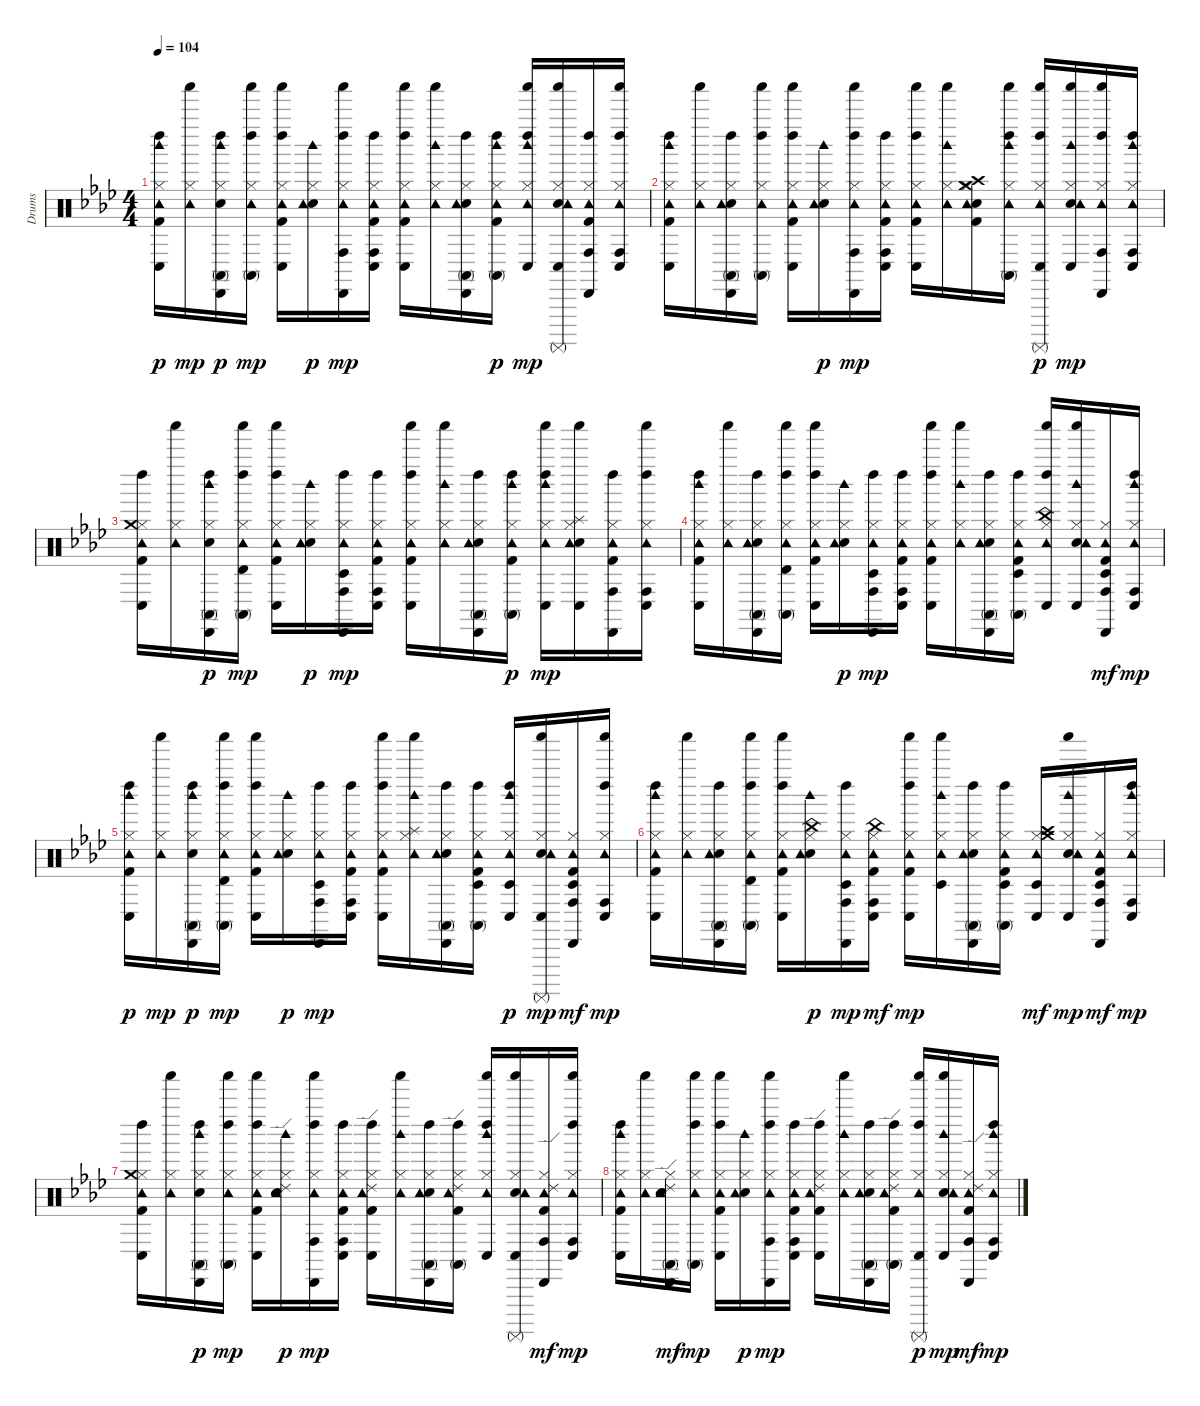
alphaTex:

\track ("Drums" "Drums") {instrument percussion}
\staff {score}
\articulation defaults
\ts (4 4)
\tempo 104
\clef neutral
\ks ab
("Kick (hit) 2" "Hi-Hat (closed)" "Tambourine (hit)" "Conga low (hit)" "Left Maraca (hit)" "Woodblock high (hit)").16{dy p} ("Hi-Hat (closed)" "Tambourine (hit)" "Shaker (hit)").16{dy mp} ("Hand Clap (hit)" "Hi-Hat (closed)" "Conga high (mute)" "Cabasa (hit)" "Left Maraca (hit)" "Woodblock high (hit)").16{dy p} ("Hi-Hat (closed)" "Tambourine (hit)" "Conga high (mute)" "Left Maraca (hit)" "Shaker (hit)").16{dy mp} ("Kick (hit) 2" "Hi-Hat (closed)" "Tambourine (hit)" "Conga low (hit)" "Left Maraca (hit)" "Shaker (hit)").16 ("Hand Clap (hit)" "Hi-Hat (closed)" "Tambourine (hit)" "Woodblock high (hit)").16{dy p} ("Hi-Hat (closed)" "Tambourine (hit)" "Conga high (hit)" "Cabasa (hit)" "Left Maraca (hit)" "Shaker (hit)").16{dy mp} ("Kick (hit) 2" "Hi-Hat (closed)" "Tambourine (hit)" "Conga high (hit)" "Conga low (hit)" "Left Maraca (hit)").16 ("Kick (hit) 2" "Hi-Hat (closed)" "Tambourine (hit)" "Conga low (hit)" "Left Maraca (hit)" "Shaker (hit)").16 ("Hi-Hat (closed)" "Tambourine (hit)" "Woodblock high (hit)" "Shaker (hit)").16 ("Hand Clap (hit)" "Hi-Hat (closed)" "Tambourine (hit)" "Conga high (mute)" "Cabasa (hit)" "Left Maraca (hit)").16 ("Kick (hit) 2" "Hi-Hat (closed)" "Tambourine (hit)" "Conga high (mute)" "Left Maraca (hit)" "Woodblock high (hit)").16{dy p} ("Hi-Hat (closed)" "Tambourine (hit)" "Conga low (hit)" "Left Maraca (hit)" "Woodblock high (hit)" "Shaker (hit)").16{dy mp} ("Hand Clap (hit)" "Hi-Hat (closed)" "Tambourine (hit)" "Conga low (hit)" "Shaker (hit)" "Surdo (mute)").16 ("Kick (hit) 2" "Hi-Hat (closed)" "Tambourine (hit)" "Conga high (hit)" "Cabasa (hit)" "Left Maraca (hit)").16 ("Hi-Hat (closed)" "Tambourine (hit)" "Conga high (hit)" "Conga low (hit)" "Left Maraca (hit)" "Shaker (hit)").16 |
("Kick (hit) 2" "Hi-Hat (closed)" "Tambourine (hit)" "Conga low (hit)" "Left Maraca (hit)" "Woodblock high (hit)").16 ("Hi-Hat (closed)" "Tambourine (hit)" "Shaker (hit)").16 ("Hand Clap (hit)" "Hi-Hat (closed)" "Tambourine (hit)" "Conga high (mute)" "Cabasa (hit)" "Left Maraca (hit)").16 ("Hi-Hat (closed)" "Tambourine (hit)" "Conga high (mute)" "Left Maraca (hit)" "Shaker (hit)").16 ("Kick (hit) 2" "Hi-Hat (closed)" "Tambourine (hit)" "Conga low (hit)" "Left Maraca (hit)" "Shaker (hit)").16 ("Hand Clap (hit)" "Hi-Hat (closed)" "Tambourine (hit)" "Woodblock high (hit)").16{dy p} ("Hi-Hat (closed)" "Tambourine (hit)" "Conga high (hit)" "Cabasa (hit)" "Left Maraca (hit)" "Shaker (hit)").16{dy mp} ("Kick (hit) 2" "Hi-Hat (closed)" "Tambourine (hit)" "Conga high (hit)" "Conga low (hit)" "Left Maraca (hit)").16 ("Kick (hit) 2" "Hi-Hat (closed)" "Tambourine (hit)" "Conga low (hit)" "Left Maraca (hit)" "Shaker (hit)").16 ("Hi-Hat (closed)" "Tambourine (hit)" "Woodblock high (hit)" "Shaker (hit)").16 ("Kick (hit) 2" "Hand Clap (hit)" "Hi-Hat (closed)" "Crash high (hit)" "Tambourine (hit)" "Crash medium (hit)").16 ("Hi-Hat (closed)" "Tambourine (hit)" "Conga high (mute)" "Left Maraca (hit)" "Woodblock high (hit)" "Shaker (hit)").16 ("Hi-Hat (closed)" "Tambourine (hit)" "Conga low (hit)" "Left Maraca (hit)" "Shaker (hit)" "Surdo (mute)").16{dy p} ("Hand Clap (hit)" "Hi-Hat (closed)" "Tambourine (hit)" "Conga low (hit)" "Woodblock high (hit)" "Shaker (hit)").16{dy mp} ("Hi-Hat (closed)" "Tambourine (hit)" "Conga high (hit)" "Cabasa (hit)" "Left Maraca (hit)" "Shaker (hit)").16 ("Hi-Hat (closed)" "Tambourine (hit)" "Conga high (hit)" "Conga low (hit)" "Left Maraca (hit)" "Woodblock high (hit)").16 |
("Kick (hit) 2" "Hi-Hat (closed)" "Tambourine (hit)" "Crash medium (hit)" "Conga low (hit)" "Left Maraca (hit)").16 ("Hi-Hat (closed)" "Tambourine (hit)" "Shaker (hit)").16 ("Hand Clap (hit)" "Hi-Hat (closed)" "Conga high (mute)" "Cabasa (hit)" "Left Maraca (hit)" "Woodblock high (hit)").16{dy p} ("Hi-Hat (closed)" "Tambourine (hit)" "Conga high (mute)" "Timbale high (hit)" "Left Maraca (hit)" "Shaker (hit)").16{dy mp} ("Kick (hit) 2" "Hi-Hat (closed)" "Tambourine (hit)" "Conga low (hit)" "Left Maraca (hit)" "Shaker (hit)").16 ("Hand Clap (hit)" "Hi-Hat (closed)" "Tambourine (hit)" "Woodblock high (hit)").16{dy p} ("Hi-Hat (closed)" "Tambourine (hit)" "Conga high (hit)" "Timbale low (hit)" "Cabasa (hit)" "Left Maraca (hit)").16{dy mp} ("Kick (hit) 2" "Hi-Hat (closed)" "Tambourine (hit)" "Conga high (hit)" "Conga low (hit)" "Left Maraca (hit)").16 ("Kick (hit) 2" "Hi-Hat (closed)" "Tambourine (hit)" "Conga low (hit)" "Left Maraca (hit)" "Shaker (hit)").16 ("Hi-Hat (closed)" "Tambourine (hit)" "Woodblock high (hit)" "Shaker (hit)").16 ("Hand Clap (hit)" "Hi-Hat (closed)" "Tambourine (hit)" "Conga high (mute)" "Cabasa (hit)" "Left Maraca (hit)").16 ("Kick (hit) 2" "Hi-Hat (closed)" "Tambourine (hit)" "Conga high (mute)" "Left Maraca (hit)" "Woodblock high (hit)").16{dy p} ("Hi-Hat (closed)" "Tambourine (hit)" "Conga low (hit)" "Left Maraca (hit)" "Woodblock high (hit)" "Shaker (hit)").16{dy mp} ("Hand Clap (hit)" "Hi-Hat (closed)" "Tambourine (hit)" "Splash (hit)" "Conga low (hit)" "Shaker (hit)").16 ("Kick (hit) 2" "Hi-Hat (closed)" "Tambourine (hit)" "Conga high (hit)" "Cabasa (hit)" "Left Maraca (hit)").16 ("Hi-Hat (closed)" "Tambourine (hit)" "Conga high (hit)" "Conga low (hit)" "Left Maraca (hit)" "Shaker (hit)").16 |
("Kick (hit) 2" "Hi-Hat (closed)" "Tambourine (hit)" "Conga low (hit)" "Left Maraca (hit)" "Woodblock high (hit)").16 ("Hi-Hat (closed)" "Tambourine (hit)" "Shaker (hit)").16 ("Hand Clap (hit)" "Hi-Hat (closed)" "Tambourine (hit)" "Conga high (mute)" "Cabasa (hit)" "Left Maraca (hit)").16 ("Hi-Hat (closed)" "Tambourine (hit)" "Conga high (mute)" "Timbale high (hit)" "Left Maraca (hit)" "Shaker (hit)").16 ("Kick (hit) 2" "Hi-Hat (closed)" "Tambourine (hit)" "Conga low (hit)" "Left Maraca (hit)" "Shaker (hit)").16 ("Hand Clap (hit)" "Hi-Hat (closed)" "Tambourine (hit)" "Woodblock high (hit)").16{dy p} ("Hi-Hat (closed)" "Tambourine (hit)" "Conga high (hit)" "Timbale low (hit)" "Cabasa (hit)" "Left Maraca (hit)").16{dy mp} ("Kick (hit) 2" "Hi-Hat (closed)" "Tambourine (hit)" "Conga high (hit)" "Conga low (hit)" "Left Maraca (hit)").16 ("Kick (hit) 2" "Hi-Hat (closed)" "Tambourine (hit)" "Conga low (hit)" "Left Maraca (hit)" "Shaker (hit)").16 ("Hi-Hat (closed)" "Tambourine (hit)" "Woodblock high (hit)" "Shaker (hit)").16 ("Hand Clap (hit)" "Hi-Hat (closed)" "Tambourine (hit)" "Conga high (mute)" "Cabasa (hit)" "Left Maraca (hit)").16 ("Kick (hit) 2" "Hi-Hat (closed)" "Tambourine (hit)" "Conga high (mute)" "Timbale low (hit)" "Left Maraca (hit)").16 ("Hi-Hat (closed)" "China (hit)" "Tambourine (hit)" "Conga low (hit)" "Left Maraca (hit)" "Shaker (hit)").16 ("Hand Clap (hit)" "Hi-Hat (closed)" "Tambourine (hit)" "Conga low (hit)" "Woodblock high (hit)" "Shaker (hit)").16 ("Kick (hit) 2" "Hi-Hat (closed)" "Tambourine (hit)" "Conga high (hit)" "Timbale low (hit)" "Cabasa (hit)").16{dy mf} ("Hi-Hat (closed)" "Tambourine (hit)" "Conga high (hit)" "Conga low (hit)" "Left Maraca (hit)" "Woodblock high (hit)").16{dy mp} |
("Kick (hit) 2" "Hi-Hat (closed)" "Tambourine (hit)" "Conga low (hit)" "Left Maraca (hit)" "Woodblock high (hit)").16{dy p} ("Hi-Hat (closed)" "Tambourine (hit)" "Shaker (hit)").16{dy mp} ("Hand Clap (hit)" "Hi-Hat (closed)" "Conga high (mute)" "Cabasa (hit)" "Left Maraca (hit)" "Woodblock high (hit)").16{dy p} ("Hi-Hat (closed)" "Tambourine (hit)" "Conga high (mute)" "Timbale high (hit)" "Left Maraca (hit)" "Shaker (hit)").16{dy mp} ("Kick (hit) 2" "Hi-Hat (closed)" "Tambourine (hit)" "Conga low (hit)" "Left Maraca (hit)" "Shaker (hit)").16 ("Hand Clap (hit)" "Hi-Hat (closed)" "Tambourine (hit)" "Woodblock high (hit)").16{dy p} ("Hi-Hat (closed)" "Tambourine (hit)" "Conga high (hit)" "Timbale low (hit)" "Cabasa (hit)" "Left Maraca (hit)").16{dy mp} ("Kick (hit) 2" "Hi-Hat (closed)" "Tambourine (hit)" "Conga high (hit)" "Conga low (hit)" "Left Maraca (hit)").16 ("Kick (hit) 2" "Hi-Hat (closed)" "Tambourine (hit)" "Conga low (hit)" "Left Maraca (hit)" "Shaker (hit)").16 ("Hi-Hat (closed)" "Tambourine (hit)" "Splash (hit)" "Woodblock high (hit)" "Shaker (hit)").16 ("Hand Clap (hit)" "Hi-Hat (closed)" "Tambourine (hit)" "Conga high (mute)" "Cabasa (hit)" "Left Maraca (hit)").16 ("Kick (hit) 2" "Hi-Hat (closed)" "Tambourine (hit)" "Conga high (mute)" "Timbale low (hit)" "Left Maraca (hit)").16 ("Hi-Hat (closed)" "Tambourine (hit)" "Conga low (hit)" "Timbale low (hit)" "Left Maraca (hit)" "Woodblock high (hit)").16{dy p} ("Hand Clap (hit)" "Hi-Hat (closed)" "Tambourine (hit)" "Conga low (hit)" "Shaker (hit)" "Surdo (mute)").16{dy mp} ("Kick (hit) 2" "Hi-Hat (closed)" "Tambourine (hit)" "Conga high (hit)" "Timbale low (hit)" "Cabasa (hit)").16{dy mf} ("Hi-Hat (closed)" "Tambourine (hit)" "Conga high (hit)" "Conga low (hit)" "Left Maraca (hit)" "Shaker (hit)").16{dy mp} |
("Kick (hit) 2" "Hi-Hat (closed)" "Tambourine (hit)" "Conga low (hit)" "Left Maraca (hit)" "Woodblock high (hit)").16 ("Hi-Hat (closed)" "Tambourine (hit)" "Shaker (hit)").16 ("Hand Clap (hit)" "Hi-Hat (closed)" "Tambourine (hit)" "Conga high (mute)" "Cabasa (hit)" "Left Maraca (hit)").16 ("Hi-Hat (closed)" "Tambourine (hit)" "Conga high (mute)" "Timbale high (hit)" "Left Maraca (hit)" "Shaker (hit)").16 ("Kick (hit) 2" "Hi-Hat (closed)" "Tambourine (hit)" "Conga low (hit)" "Left Maraca (hit)" "Shaker (hit)").16 ("Hand Clap (hit)" "Hi-Hat (closed)" "China (hit)" "Tambourine (hit)" "Woodblock high (hit)").16{dy p} ("Hi-Hat (closed)" "Tambourine (hit)" "Conga high (hit)" "Timbale low (hit)" "Cabasa (hit)" "Left Maraca (hit)").16{dy mp} ("Kick (hit) 2" "Hi-Hat (closed)" "China (hit)" "Tambourine (hit)" "Conga high (hit)" "Conga low (hit)").16{dy mf} ("Kick (hit) 2" "Hi-Hat (closed)" "Tambourine (hit)" "Conga low (hit)" "Left Maraca (hit)" "Shaker (hit)").16{dy mp} ("Hi-Hat (closed)" "Tambourine (hit)" "Timbale low (hit)" "Woodblock high (hit)" "Shaker (hit)").16 ("Hand Clap (hit)" "Hi-Hat (closed)" "Tambourine (hit)" "Conga high (mute)" "Cabasa (hit)" "Left Maraca (hit)").16 ("Kick (hit) 2" "Hi-Hat (closed)" "Tambourine (hit)" "Conga high (mute)" "Timbale low (hit)" "Left Maraca (hit)").16 ("Hi-Hat (closed)" "Crash high (hit)" "Tambourine (hit)" "Crash medium (hit)" "Conga low (hit)" "Timbale low (hit)").16{dy mf} ("Hand Clap (hit)" "Hi-Hat (closed)" "Tambourine (hit)" "Conga low (hit)" "Woodblock high (hit)" "Shaker (hit)").16{dy mp} ("Kick (hit) 2" "Hi-Hat (closed)" "Tambourine (hit)" "Conga high (hit)" "Timbale low (hit)" "Cabasa (hit)").16{dy mf} ("Hi-Hat (closed)" "Tambourine (hit)" "Conga high (hit)" "Conga low (hit)" "Left Maraca (hit)" "Woodblock high (hit)").16{dy mp} |
("Kick (hit) 2" "Hi-Hat (closed)" "Tambourine (hit)" "Crash medium (hit)" "Conga low (hit)" "Left Maraca (hit)").16 ("Hi-Hat (closed)" "Tambourine (hit)" "Shaker (hit)").16 ("Hand Clap (hit)" "Hi-Hat (closed)" "Conga high (mute)" "Cabasa (hit)" "Left Maraca (hit)" "Woodblock high (hit)").16{dy p} ("Hi-Hat (closed)" "Tambourine (hit)" "Conga high (mute)" "Left Maraca (hit)" "Shaker (hit)").16{dy mp} ("Kick (hit) 2" "Hi-Hat (closed)" "Tambourine (hit)" "Conga low (hit)" "Left Maraca (hit)" "Shaker (hit)").16 ("Hand Clap (hit)" "Hi-Hat (closed)" "Tambourine (hit)" "Ride (edge) 2" "Woodblock high (hit)").16{dy p} ("Hi-Hat (closed)" "Tambourine (hit)" "Conga high (hit)" "Cabasa (hit)" "Left Maraca (hit)" "Shaker (hit)").16{dy mp} ("Kick (hit) 2" "Hi-Hat (closed)" "Tambourine (hit)" "Conga high (hit)" "Conga low (hit)" "Left Maraca (hit)").16 ("Kick (hit) 2" "Hi-Hat (closed)" "Tambourine (hit)" "Ride (edge) 2" "Conga low (hit)" "Left Maraca (hit)").16 ("Hi-Hat (closed)" "Tambourine (hit)" "Woodblock high (hit)" "Shaker (hit)").16 ("Hand Clap (hit)" "Hi-Hat (closed)" "Tambourine (hit)" "Conga high (mute)" "Cabasa (hit)" "Left Maraca (hit)").16 ("Kick (hit) 2" "Hi-Hat (closed)" "Tambourine (hit)" "Ride (edge) 2" "Conga high (mute)" "Left Maraca (hit)").16 ("Hi-Hat (closed)" "Tambourine (hit)" "Conga low (hit)" "Left Maraca (hit)" "Woodblock high (hit)" "Shaker (hit)").16 ("Hand Clap (hit)" "Hi-Hat (closed)" "Tambourine (hit)" "Conga low (hit)" "Shaker (hit)" "Surdo (mute)").16 ("Kick (hit) 2" "Hi-Hat (closed)" "Tambourine (hit)" "Ride (edge) 2" "Conga high (hit)" "Cabasa (hit)").16{dy mf} ("Hi-Hat (closed)" "Tambourine (hit)" "Conga high (hit)" "Conga low (hit)" "Left Maraca (hit)" "Shaker (hit)").16{dy mp} |
("Kick (hit) 2" "Hi-Hat (closed)" "Tambourine (hit)" "Conga low (hit)" "Left Maraca (hit)" "Woodblock high (hit)").16 ("Hi-Hat (closed)" "Tambourine (hit)" "Shaker (hit)").16 ("Hand Clap (hit)" "Hi-Hat (closed)" "Tambourine (hit)" "Ride (edge) 2" "Conga high (mute)" "Cabasa (hit)").16{dy mf} ("Hi-Hat (closed)" "Tambourine (hit)" "Conga high (mute)" "Left Maraca (hit)" "Shaker (hit)").16{dy mp} ("Kick (hit) 2" "Hi-Hat (closed)" "Tambourine (hit)" "Conga low (hit)" "Left Maraca (hit)" "Shaker (hit)").16 ("Hand Clap (hit)" "Hi-Hat (closed)" "Tambourine (hit)" "Woodblock high (hit)").16{dy p} ("Hi-Hat (closed)" "Tambourine (hit)" "Conga high (hit)" "Cabasa (hit)" "Left Maraca (hit)" "Shaker (hit)").16{dy mp} ("Kick (hit) 2" "Hi-Hat (closed)" "Tambourine (hit)" "Conga high (hit)" "Conga low (hit)" "Left Maraca (hit)").16 ("Kick (hit) 2" "Hi-Hat (closed)" "Tambourine (hit)" "Ride (edge) 2" "Conga low (hit)" "Left Maraca (hit)").16 ("Hi-Hat (closed)" "Tambourine (hit)" "Woodblock high (hit)" "Shaker (hit)").16 ("Hand Clap (hit)" "Hi-Hat (closed)" "Tambourine (hit)" "Conga high (mute)" "Cabasa (hit)" "Left Maraca (hit)").16 ("Kick (hit) 2" "Hi-Hat (closed)" "Tambourine (hit)" "Ride (edge) 2" "Conga high (mute)" "Left Maraca (hit)").16 ("Hi-Hat (closed)" "Tambourine (hit)" "Conga low (hit)" "Left Maraca (hit)" "Shaker (hit)" "Surdo (mute)").16{dy p} ("Hand Clap (hit)" "Hi-Hat (closed)" "Tambourine (hit)" "Conga low (hit)" "Woodblock high (hit)" "Shaker (hit)").16{dy mp} ("Kick (hit) 2" "Hi-Hat (closed)" "Tambourine (hit)" "Ride (edge) 2" "Conga high (hit)" "Cabasa (hit)").16{dy mf} ("Hi-Hat (closed)" "Tambourine (hit)" "Conga high (hit)" "Conga low (hit)" "Left Maraca (hit)" "Woodblock high (hit)").16{dy mp}
